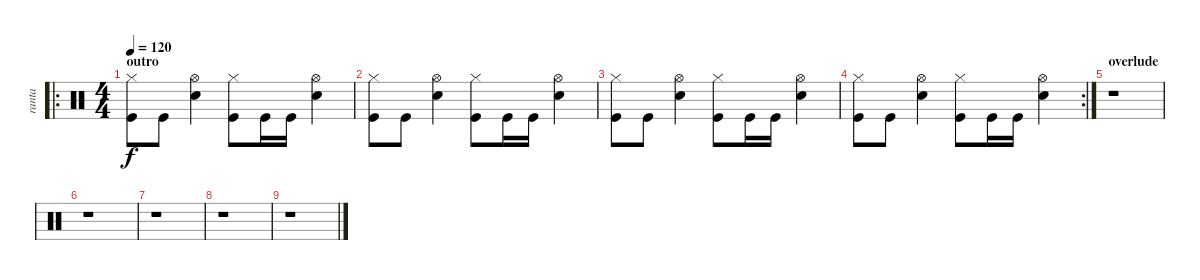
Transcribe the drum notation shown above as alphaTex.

\track ("ranta" "ranta") {instrument percussion}
\staff {score}
\articulation defaults
\ro
\ts (4 4)
\section ("" "outro")
\tempo 120
\clef neutral
\ks c
("Hi-Hat (closed)" "Kick (hit)").8{dy f} "Kick (hit)".8 ("Hi-Hat (open)" "Snare (hit) 2").4 ("Hi-Hat (closed)" "Kick (hit)").8 "Kick (hit)".16 "Kick (hit)".16 ("Hi-Hat (open)" "Snare (hit) 2").4 |
("Hi-Hat (closed)" "Kick (hit)").8 "Kick (hit)".8 ("Hi-Hat (open)" "Snare (hit) 2").4 ("Hi-Hat (closed)" "Kick (hit)").8 "Kick (hit)".16 "Kick (hit)".16 ("Hi-Hat (open)" "Snare (hit) 2").4 |
("Hi-Hat (closed)" "Kick (hit)").8 "Kick (hit)".8 ("Hi-Hat (open)" "Snare (hit) 2").4 ("Hi-Hat (closed)" "Kick (hit)").8 "Kick (hit)".16 "Kick (hit)".16 ("Hi-Hat (open)" "Snare (hit) 2").4 |
\rc 2
("Hi-Hat (closed)" "Kick (hit)").8 "Kick (hit)".8 ("Hi-Hat (open)" "Snare (hit) 2").4 ("Hi-Hat (closed)" "Kick (hit)").8 "Kick (hit)".16 "Kick (hit)".16 ("Hi-Hat (open)" "Snare (hit) 2").4 |
\section ("" "overlude")
r.1 |
r.1 |
r.1 |
r.1 |
r.1
